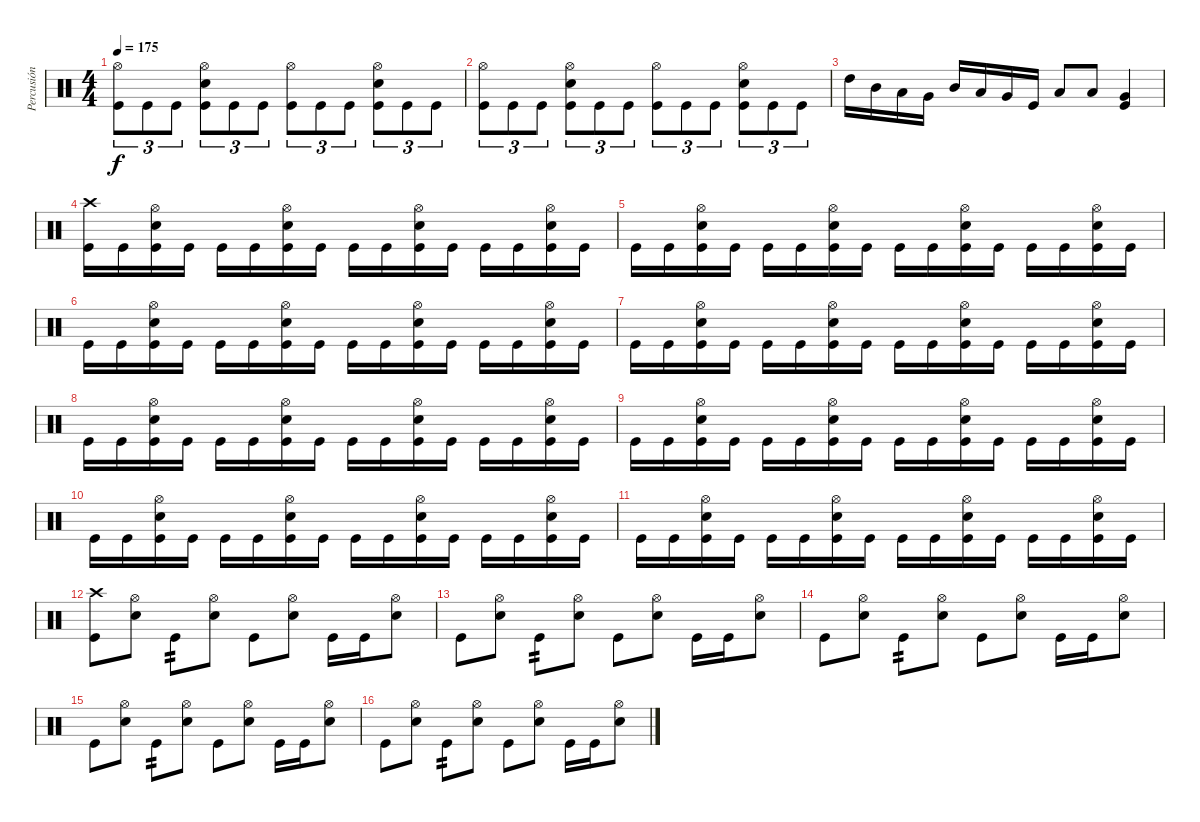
\track ("Percusión" "Percusión") {instrument percussion}
\staff {score}
\articulation defaults
\ts (4 4)
\tempo 175
\clef neutral
\ks c
("Hi-Hat (open)" "Kick (hit)").8{tu (3 2) dy f} "Kick (hit)".8{tu (3 2)} "Kick (hit)".8{tu (3 2)} ("Hi-Hat (open)" "Snare (hit) 2" "Kick (hit)").8{tu (3 2)} "Kick (hit)".8{tu (3 2)} "Kick (hit)".8{tu (3 2)} ("Hi-Hat (open)" "Kick (hit)").8{tu (3 2)} "Kick (hit)".8{tu (3 2)} "Kick (hit)".8{tu (3 2)} ("Hi-Hat (open)" "Snare (hit) 2" "Kick (hit)").8{tu (3 2)} "Kick (hit)".8{tu (3 2)} "Kick (hit)".8{tu (3 2)} |
("Hi-Hat (open)" "Kick (hit)").8{tu (3 2)} "Kick (hit)".8{tu (3 2)} "Kick (hit)".8{tu (3 2)} ("Hi-Hat (open)" "Snare (hit) 2" "Kick (hit)").8{tu (3 2)} "Kick (hit)".8{tu (3 2)} "Kick (hit)".8{tu (3 2)} ("Hi-Hat (open)" "Kick (hit)").8{tu (3 2)} "Kick (hit)".8{tu (3 2)} "Kick (hit)".8{tu (3 2)} ("Hi-Hat (open)" "Snare (hit) 2" "Kick (hit)").8{tu (3 2)} "Kick (hit)".8{tu (3 2)} "Kick (hit)".8{tu (3 2)} |
"High Tom (hit)".16 "Mid Tom (hit)".16 "Low Tom (hit)".16 "Very Low Tom (hit)".16 "Mid Tom (hit)".16 "Low Tom (hit)".16 "Very Low Tom (hit)".16 "Kick (hit)".16 "Low Tom (hit)".8 "Low Tom (hit)".8 ("Very Low Tom (hit)" "Kick (hit)").4 |
("Crash high (hit)" "Kick (hit)").16 "Kick (hit)".16 ("Hi-Hat (open)" "Snare (hit) 2" "Kick (hit)").16 "Kick (hit)".16 "Kick (hit)".16 "Kick (hit)".16 ("Hi-Hat (open)" "Snare (hit) 2" "Kick (hit)").16 "Kick (hit)".16 "Kick (hit)".16 "Kick (hit)".16 ("Hi-Hat (open)" "Snare (hit) 2" "Kick (hit)").16 "Kick (hit)".16 "Kick (hit)".16 "Kick (hit)".16 ("Hi-Hat (open)" "Snare (hit) 2" "Kick (hit)").16 "Kick (hit)".16 |
"Kick (hit)".16 "Kick (hit)".16 ("Hi-Hat (open)" "Snare (hit) 2" "Kick (hit)").16 "Kick (hit)".16 "Kick (hit)".16 "Kick (hit)".16 ("Hi-Hat (open)" "Snare (hit) 2" "Kick (hit)").16 "Kick (hit)".16 "Kick (hit)".16 "Kick (hit)".16 ("Hi-Hat (open)" "Snare (hit) 2" "Kick (hit)").16 "Kick (hit)".16 "Kick (hit)".16 "Kick (hit)".16 ("Hi-Hat (open)" "Snare (hit) 2" "Kick (hit)").16 "Kick (hit)".16 |
"Kick (hit)".16 "Kick (hit)".16 ("Hi-Hat (open)" "Snare (hit) 2" "Kick (hit)").16 "Kick (hit)".16 "Kick (hit)".16 "Kick (hit)".16 ("Hi-Hat (open)" "Snare (hit) 2" "Kick (hit)").16 "Kick (hit)".16 "Kick (hit)".16 "Kick (hit)".16 ("Hi-Hat (open)" "Snare (hit) 2" "Kick (hit)").16 "Kick (hit)".16 "Kick (hit)".16 "Kick (hit)".16 ("Hi-Hat (open)" "Snare (hit) 2" "Kick (hit)").16 "Kick (hit)".16 |
"Kick (hit)".16 "Kick (hit)".16 ("Hi-Hat (open)" "Snare (hit) 2" "Kick (hit)").16 "Kick (hit)".16 "Kick (hit)".16 "Kick (hit)".16 ("Hi-Hat (open)" "Snare (hit) 2" "Kick (hit)").16 "Kick (hit)".16 "Kick (hit)".16 "Kick (hit)".16 ("Hi-Hat (open)" "Snare (hit) 2" "Kick (hit)").16 "Kick (hit)".16 "Kick (hit)".16 "Kick (hit)".16 ("Hi-Hat (open)" "Snare (hit) 2" "Kick (hit)").16 "Kick (hit)".16 |
"Kick (hit)".16 "Kick (hit)".16 ("Hi-Hat (open)" "Snare (hit) 2" "Kick (hit)").16 "Kick (hit)".16 "Kick (hit)".16 "Kick (hit)".16 ("Hi-Hat (open)" "Snare (hit) 2" "Kick (hit)").16 "Kick (hit)".16 "Kick (hit)".16 "Kick (hit)".16 ("Hi-Hat (open)" "Snare (hit) 2" "Kick (hit)").16 "Kick (hit)".16 "Kick (hit)".16 "Kick (hit)".16 ("Hi-Hat (open)" "Snare (hit) 2" "Kick (hit)").16 "Kick (hit)".16 |
"Kick (hit)".16 "Kick (hit)".16 ("Hi-Hat (open)" "Snare (hit) 2" "Kick (hit)").16 "Kick (hit)".16 "Kick (hit)".16 "Kick (hit)".16 ("Hi-Hat (open)" "Snare (hit) 2" "Kick (hit)").16 "Kick (hit)".16 "Kick (hit)".16 "Kick (hit)".16 ("Hi-Hat (open)" "Snare (hit) 2" "Kick (hit)").16 "Kick (hit)".16 "Kick (hit)".16 "Kick (hit)".16 ("Hi-Hat (open)" "Snare (hit) 2" "Kick (hit)").16 "Kick (hit)".16 |
"Kick (hit)".16 "Kick (hit)".16 ("Hi-Hat (open)" "Snare (hit) 2" "Kick (hit)").16 "Kick (hit)".16 "Kick (hit)".16 "Kick (hit)".16 ("Hi-Hat (open)" "Snare (hit) 2" "Kick (hit)").16 "Kick (hit)".16 "Kick (hit)".16 "Kick (hit)".16 ("Hi-Hat (open)" "Snare (hit) 2" "Kick (hit)").16 "Kick (hit)".16 "Kick (hit)".16 "Kick (hit)".16 ("Hi-Hat (open)" "Snare (hit) 2" "Kick (hit)").16 "Kick (hit)".16 |
"Kick (hit)".16 "Kick (hit)".16 ("Hi-Hat (open)" "Snare (hit) 2" "Kick (hit)").16 "Kick (hit)".16 "Kick (hit)".16 "Kick (hit)".16 ("Hi-Hat (open)" "Snare (hit) 2" "Kick (hit)").16 "Kick (hit)".16 "Kick (hit)".16 "Kick (hit)".16 ("Hi-Hat (open)" "Snare (hit) 2" "Kick (hit)").16 "Kick (hit)".16 "Kick (hit)".16 "Kick (hit)".16 ("Hi-Hat (open)" "Snare (hit) 2" "Kick (hit)").16 "Kick (hit)".16 |
("Crash high (hit)" "Kick (hit)").8 ("Hi-Hat (open)" "Snare (hit) 2").8 "Kick (hit)".8{tp 2} ("Hi-Hat (open)" "Snare (hit) 2").8 "Kick (hit)".8 ("Hi-Hat (open)" "Snare (hit) 2").8 "Kick (hit)".16 "Kick (hit)".16 ("Hi-Hat (open)" "Snare (hit) 2").8 |
"Kick (hit)".8 ("Hi-Hat (open)" "Snare (hit) 2").8 "Kick (hit)".8{tp 2} ("Hi-Hat (open)" "Snare (hit) 2").8 "Kick (hit)".8 ("Hi-Hat (open)" "Snare (hit) 2").8 "Kick (hit)".16 "Kick (hit)".16 ("Hi-Hat (open)" "Snare (hit) 2").8 |
"Kick (hit)".8 ("Hi-Hat (open)" "Snare (hit) 2").8 "Kick (hit)".8{tp 2} ("Hi-Hat (open)" "Snare (hit) 2").8 "Kick (hit)".8 ("Hi-Hat (open)" "Snare (hit) 2").8 "Kick (hit)".16 "Kick (hit)".16 ("Hi-Hat (open)" "Snare (hit) 2").8 |
"Kick (hit)".8 ("Hi-Hat (open)" "Snare (hit) 2").8 "Kick (hit)".8{tp 2} ("Hi-Hat (open)" "Snare (hit) 2").8 "Kick (hit)".8 ("Hi-Hat (open)" "Snare (hit) 2").8 "Kick (hit)".16 "Kick (hit)".16 ("Hi-Hat (open)" "Snare (hit) 2").8 |
"Kick (hit)".8 ("Hi-Hat (open)" "Snare (hit) 2").8 "Kick (hit)".8{tp 2} ("Hi-Hat (open)" "Snare (hit) 2").8 "Kick (hit)".8 ("Hi-Hat (open)" "Snare (hit) 2").8 "Kick (hit)".16 "Kick (hit)".16 ("Hi-Hat (open)" "Snare (hit) 2").8
